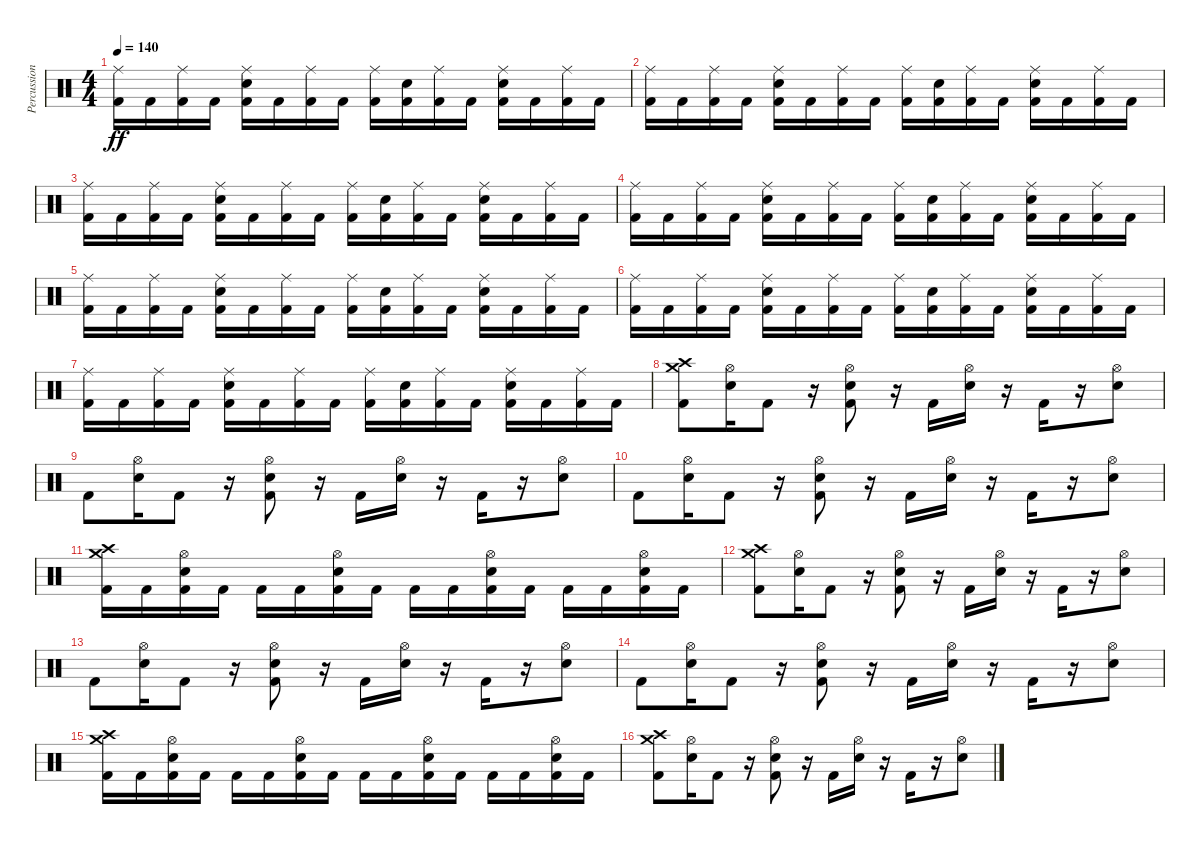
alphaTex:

\track ("Percussion" "Percussion") {instrument percussion}
\staff {score}
\articulation defaults
\ts (4 4)
\tempo 140
\clef neutral
\ks c
("Kick (hit) 2" "Ride (middle)").16{dy ff} "Kick (hit) 2".16 ("Kick (hit) 2" "Ride (middle)").16 "Kick (hit) 2".16 ("Kick (hit) 2" "Electric Snare (hit)" "Ride (middle)").16 "Kick (hit) 2".16 ("Kick (hit) 2" "Ride (middle)").16 "Kick (hit) 2".16 ("Kick (hit) 2" "Ride (middle)").16 ("Kick (hit) 2" "Electric Snare (hit)").16 ("Kick (hit) 2" "Ride (middle)").16 "Kick (hit) 2".16 ("Kick (hit) 2" "Electric Snare (hit)" "Ride (middle)").16 "Kick (hit) 2".16 ("Kick (hit) 2" "Ride (middle)").16 "Kick (hit) 2".16 |
("Kick (hit) 2" "Ride (middle)").16 "Kick (hit) 2".16 ("Kick (hit) 2" "Ride (middle)").16 "Kick (hit) 2".16 ("Kick (hit) 2" "Electric Snare (hit)" "Ride (middle)").16 "Kick (hit) 2".16 ("Kick (hit) 2" "Ride (middle)").16 "Kick (hit) 2".16 ("Kick (hit) 2" "Ride (middle)").16 ("Kick (hit) 2" "Electric Snare (hit)").16 ("Kick (hit) 2" "Ride (middle)").16 "Kick (hit) 2".16 ("Kick (hit) 2" "Electric Snare (hit)" "Ride (middle)").16 "Kick (hit) 2".16 ("Kick (hit) 2" "Ride (middle)").16 "Kick (hit) 2".16 |
("Kick (hit) 2" "Ride (middle)").16 "Kick (hit) 2".16 ("Kick (hit) 2" "Ride (middle)").16 "Kick (hit) 2".16 ("Kick (hit) 2" "Electric Snare (hit)" "Ride (middle)").16 "Kick (hit) 2".16 ("Kick (hit) 2" "Ride (middle)").16 "Kick (hit) 2".16 ("Kick (hit) 2" "Ride (middle)").16 ("Kick (hit) 2" "Electric Snare (hit)").16 ("Kick (hit) 2" "Ride (middle)").16 "Kick (hit) 2".16 ("Kick (hit) 2" "Electric Snare (hit)" "Ride (middle)").16 "Kick (hit) 2".16 ("Kick (hit) 2" "Ride (middle)").16 "Kick (hit) 2".16 |
("Kick (hit) 2" "Ride (middle)").16 "Kick (hit) 2".16 ("Kick (hit) 2" "Ride (middle)").16 "Kick (hit) 2".16 ("Kick (hit) 2" "Electric Snare (hit)" "Ride (middle)").16 "Kick (hit) 2".16 ("Kick (hit) 2" "Ride (middle)").16 "Kick (hit) 2".16 ("Kick (hit) 2" "Ride (middle)").16 ("Kick (hit) 2" "Electric Snare (hit)").16 ("Kick (hit) 2" "Ride (middle)").16 "Kick (hit) 2".16 ("Kick (hit) 2" "Electric Snare (hit)" "Ride (middle)").16 "Kick (hit) 2".16 ("Kick (hit) 2" "Ride (middle)").16 "Kick (hit) 2".16 |
("Kick (hit) 2" "Ride (middle)").16 "Kick (hit) 2".16 ("Kick (hit) 2" "Ride (middle)").16 "Kick (hit) 2".16 ("Kick (hit) 2" "Electric Snare (hit)" "Ride (middle)").16 "Kick (hit) 2".16 ("Kick (hit) 2" "Ride (middle)").16 "Kick (hit) 2".16 ("Kick (hit) 2" "Ride (middle)").16 ("Kick (hit) 2" "Electric Snare (hit)").16 ("Kick (hit) 2" "Ride (middle)").16 "Kick (hit) 2".16 ("Kick (hit) 2" "Electric Snare (hit)" "Ride (middle)").16 "Kick (hit) 2".16 ("Kick (hit) 2" "Ride (middle)").16 "Kick (hit) 2".16 |
("Kick (hit) 2" "Ride (middle)").16 "Kick (hit) 2".16 ("Kick (hit) 2" "Ride (middle)").16 "Kick (hit) 2".16 ("Kick (hit) 2" "Electric Snare (hit)" "Ride (middle)").16 "Kick (hit) 2".16 ("Kick (hit) 2" "Ride (middle)").16 "Kick (hit) 2".16 ("Kick (hit) 2" "Ride (middle)").16 ("Kick (hit) 2" "Electric Snare (hit)").16 ("Kick (hit) 2" "Ride (middle)").16 "Kick (hit) 2".16 ("Kick (hit) 2" "Electric Snare (hit)" "Ride (middle)").16 "Kick (hit) 2".16 ("Kick (hit) 2" "Ride (middle)").16 "Kick (hit) 2".16 |
("Kick (hit) 2" "Ride (middle)").16 "Kick (hit) 2".16 ("Kick (hit) 2" "Ride (middle)").16 "Kick (hit) 2".16 ("Kick (hit) 2" "Electric Snare (hit)" "Ride (middle)").16 "Kick (hit) 2".16 ("Kick (hit) 2" "Ride (middle)").16 "Kick (hit) 2".16 ("Kick (hit) 2" "Ride (middle)").16 ("Kick (hit) 2" "Electric Snare (hit)").16 ("Kick (hit) 2" "Ride (middle)").16 "Kick (hit) 2".16 ("Kick (hit) 2" "Electric Snare (hit)" "Ride (middle)").16 "Kick (hit) 2".16 ("Kick (hit) 2" "Ride (middle)").16 "Kick (hit) 2".16 |
("Kick (hit) 2" "Crash medium (hit)" "Crash high (hit)").8 ("Electric Snare (hit)" "Hi-Hat (open)").16 "Kick (hit) 2".8 r.16 ("Kick (hit) 2" "Electric Snare (hit)" "Hi-Hat (open)").8 r.16 "Kick (hit) 2".16 ("Electric Snare (hit)" "Hi-Hat (open)").16 r.16 "Kick (hit) 2".16 r.16 ("Electric Snare (hit)" "Hi-Hat (open)").8 |
"Kick (hit) 2".8 ("Electric Snare (hit)" "Hi-Hat (open)").16 "Kick (hit) 2".8 r.16 ("Kick (hit) 2" "Electric Snare (hit)" "Hi-Hat (open)").8 r.16 "Kick (hit) 2".16 ("Electric Snare (hit)" "Hi-Hat (open)").16 r.16 "Kick (hit) 2".16 r.16 ("Electric Snare (hit)" "Hi-Hat (open)").8 |
"Kick (hit) 2".8 ("Electric Snare (hit)" "Hi-Hat (open)").16 "Kick (hit) 2".8 r.16 ("Kick (hit) 2" "Electric Snare (hit)" "Hi-Hat (open)").8 r.16 "Kick (hit) 2".16 ("Electric Snare (hit)" "Hi-Hat (open)").16 r.16 "Kick (hit) 2".16 r.16 ("Electric Snare (hit)" "Hi-Hat (open)").8 |
("Kick (hit) 2" "Crash medium (hit)" "Crash high (hit)").16 "Kick (hit) 2".16 ("Kick (hit) 2" "Electric Snare (hit)" "Hi-Hat (open)").16 "Kick (hit) 2".16 "Kick (hit) 2".16 "Kick (hit) 2".16 ("Kick (hit) 2" "Electric Snare (hit)" "Hi-Hat (open)").16 "Kick (hit) 2".16 "Kick (hit) 2".16 "Kick (hit) 2".16 ("Kick (hit) 2" "Electric Snare (hit)" "Hi-Hat (open)").16 "Kick (hit) 2".16 "Kick (hit) 2".16 "Kick (hit) 2".16 ("Kick (hit) 2" "Electric Snare (hit)" "Hi-Hat (open)").16 "Kick (hit) 2".16 |
("Kick (hit) 2" "Crash medium (hit)" "Crash high (hit)").8 ("Electric Snare (hit)" "Hi-Hat (open)").16 "Kick (hit) 2".8 r.16 ("Kick (hit) 2" "Electric Snare (hit)" "Hi-Hat (open)").8 r.16 "Kick (hit) 2".16 ("Electric Snare (hit)" "Hi-Hat (open)").16 r.16 "Kick (hit) 2".16 r.16 ("Electric Snare (hit)" "Hi-Hat (open)").8 |
"Kick (hit) 2".8 ("Electric Snare (hit)" "Hi-Hat (open)").16 "Kick (hit) 2".8 r.16 ("Kick (hit) 2" "Electric Snare (hit)" "Hi-Hat (open)").8 r.16 "Kick (hit) 2".16 ("Electric Snare (hit)" "Hi-Hat (open)").16 r.16 "Kick (hit) 2".16 r.16 ("Electric Snare (hit)" "Hi-Hat (open)").8 |
"Kick (hit) 2".8 ("Electric Snare (hit)" "Hi-Hat (open)").16 "Kick (hit) 2".8 r.16 ("Kick (hit) 2" "Electric Snare (hit)" "Hi-Hat (open)").8 r.16 "Kick (hit) 2".16 ("Electric Snare (hit)" "Hi-Hat (open)").16 r.16 "Kick (hit) 2".16 r.16 ("Electric Snare (hit)" "Hi-Hat (open)").8 |
("Kick (hit) 2" "Crash medium (hit)" "Crash high (hit)").16 "Kick (hit) 2".16 ("Kick (hit) 2" "Electric Snare (hit)" "Hi-Hat (open)").16 "Kick (hit) 2".16 "Kick (hit) 2".16 "Kick (hit) 2".16 ("Kick (hit) 2" "Electric Snare (hit)" "Hi-Hat (open)").16 "Kick (hit) 2".16 "Kick (hit) 2".16 "Kick (hit) 2".16 ("Kick (hit) 2" "Electric Snare (hit)" "Hi-Hat (open)").16 "Kick (hit) 2".16 "Kick (hit) 2".16 "Kick (hit) 2".16 ("Kick (hit) 2" "Electric Snare (hit)" "Hi-Hat (open)").16 "Kick (hit) 2".16 |
("Kick (hit) 2" "Crash medium (hit)" "Crash high (hit)").8 ("Electric Snare (hit)" "Hi-Hat (open)").16 "Kick (hit) 2".8 r.16 ("Kick (hit) 2" "Electric Snare (hit)" "Hi-Hat (open)").8 r.16 "Kick (hit) 2".16 ("Electric Snare (hit)" "Hi-Hat (open)").16 r.16 "Kick (hit) 2".16 r.16 ("Electric Snare (hit)" "Hi-Hat (open)").8
